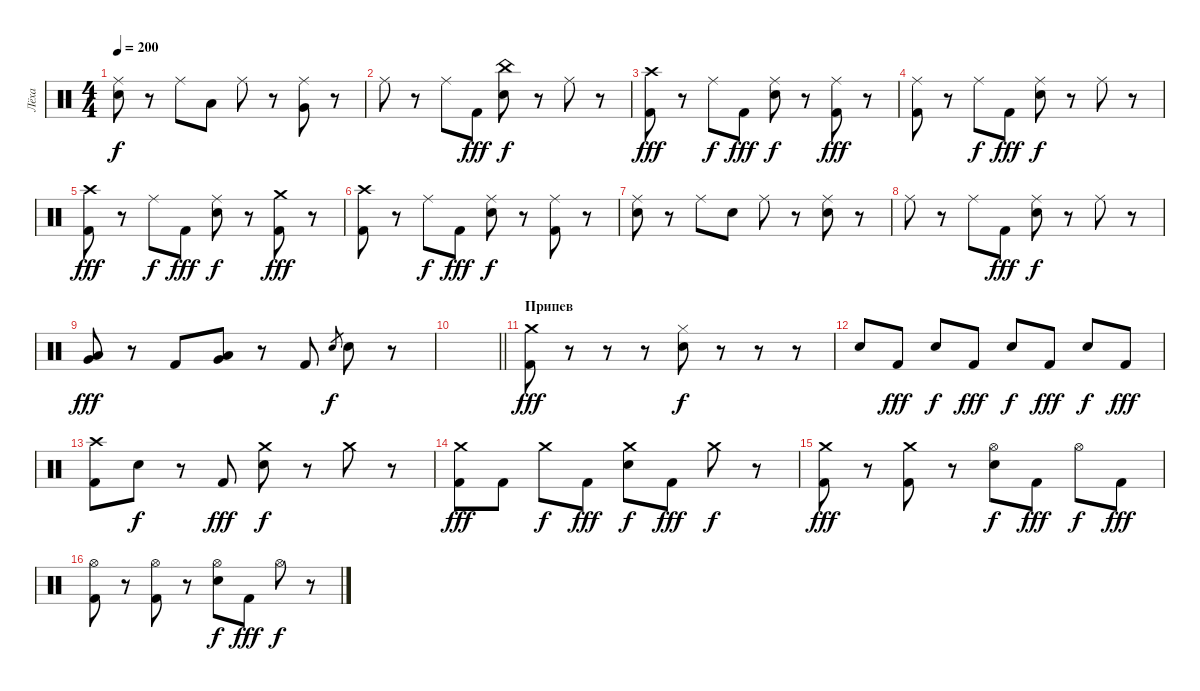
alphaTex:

\track ("Лёха" "Лёха") {instrument percussion}
\staff {score}
\articulation defaults
\ts (4 4)
\tempo 200
\clef neutral
\ks c
("Ride (middle)" "Electric Snare (hit)").8{dy f} r.8 "Ride (middle)".8 "Low Tom (hit)".8 "Ride (middle)".8 r.8 ("Ride (middle)" "Very Low Tom (hit)").8 r.8 |
"Ride (middle)".8 r.8 "Ride (middle)".8 "Kick (hit) 2".8{dy fff} ("China (hit)" "Electric Snare (hit)").8{dy f} r.8 "Ride (middle)".8 r.8 |
("Crash high (hit)" "Kick (hit) 2").8{dy fff} r.8 "Ride (middle)".8{dy f} "Kick (hit) 2".8{dy fff} ("Ride (middle)" "Electric Snare (hit)").8{dy f} r.8 ("Ride (middle)" "Kick (hit) 2").8{dy fff} r.8 |
("Ride (middle)" "Kick (hit) 2").8 r.8 "Ride (middle)".8{dy f} "Kick (hit) 2".8{dy fff} ("Ride (middle)" "Electric Snare (hit)").8{dy f} r.8 "Ride (middle)".8 r.8 |
("Crash high (hit)" "Kick (hit) 2").8{dy fff} r.8 "Ride (middle)".8{dy f} "Kick (hit) 2".8{dy fff} ("Ride (middle)" "Electric Snare (hit)").8{dy f} r.8 ("Crash medium (hit)" "Kick (hit) 2").8{dy fff} r.8 |
("Crash high (hit)" "Kick (hit) 2").8 r.8 "Ride (middle)".8{dy f} "Kick (hit) 2".8{dy fff} ("Ride (middle)" "Electric Snare (hit)").8{dy f} r.8 ("Ride (middle)" "Kick (hit) 2").8 r.8 |
("Ride (middle)" "Electric Snare (hit)").8 r.8 "Ride (middle)".8 "Electric Snare (hit)".8 "Ride (middle)".8 r.8 ("Ride (middle)" "Electric Snare (hit)").8 r.8 |
"Ride (middle)".8 r.8 "Ride (middle)".8 "Kick (hit) 2".8{dy fff} ("Ride (middle)" "Electric Snare (hit)").8{dy f} r.8 "Ride (middle)".8 r.8 |
("Low Tom (hit)" "Very Low Tom (hit)").8{dy fff} r.8 "Kick (hit) 2".8 ("Low Tom (hit)" "Very Low Tom (hit)").8 r.8 "Kick (hit) 2".8 "Electric Snare (hit)".8{gr dy f} "Electric Snare (hit)".8 r.8 |
\barLineRight lightlight
|
\section ("" "Припев")
("Crash medium (hit)" "Kick (hit) 2").8{dy fff} r.8 r.8 r.8 ("Hi-Hat (closed)" "Electric Snare (hit)").8{dy f} r.8 r.8 r.8 |
"Electric Snare (hit)".8 "Kick (hit) 2".8{dy fff} "Electric Snare (hit)".8{dy f} "Kick (hit) 2".8{dy fff} "Electric Snare (hit)".8{dy f} "Kick (hit) 2".8{dy fff} "Electric Snare (hit)".8{dy f} "Kick (hit) 2".8{dy fff} |
("Crash high (hit)" "Kick (hit) 2").8 "Electric Snare (hit)".8{dy f} r.8 "Kick (hit) 2".8{dy fff} ("Crash medium (hit)" "Electric Snare (hit)").8{dy f} r.8 "Crash medium (hit)".8 r.8 |
("Crash medium (hit)" "Kick (hit) 2").8{dy fff} "Kick (hit) 2".8 "Crash medium (hit)".8{dy f} "Kick (hit) 2".8{dy fff} ("Crash medium (hit)" "Electric Snare (hit)").8{dy f} "Kick (hit) 2".8{dy fff} "Crash medium (hit)".8{dy f} r.8 |
("Crash medium (hit)" "Kick (hit) 2").8{dy fff} r.8 ("Crash medium (hit)" "Kick (hit) 2").8 r.8 ("Hi-Hat (open)" "Electric Snare (hit)").8{dy f} "Kick (hit) 2".8{dy fff} "Hi-Hat (open)".8{dy f} "Kick (hit) 2".8{dy fff} |
("Hi-Hat (open)" "Kick (hit) 2").8 r.8 ("Hi-Hat (open)" "Kick (hit) 2").8 r.8 ("Hi-Hat (open)" "Electric Snare (hit)").8{dy f} "Kick (hit) 2".8{dy fff} "Hi-Hat (open)".8{dy f} r.8
